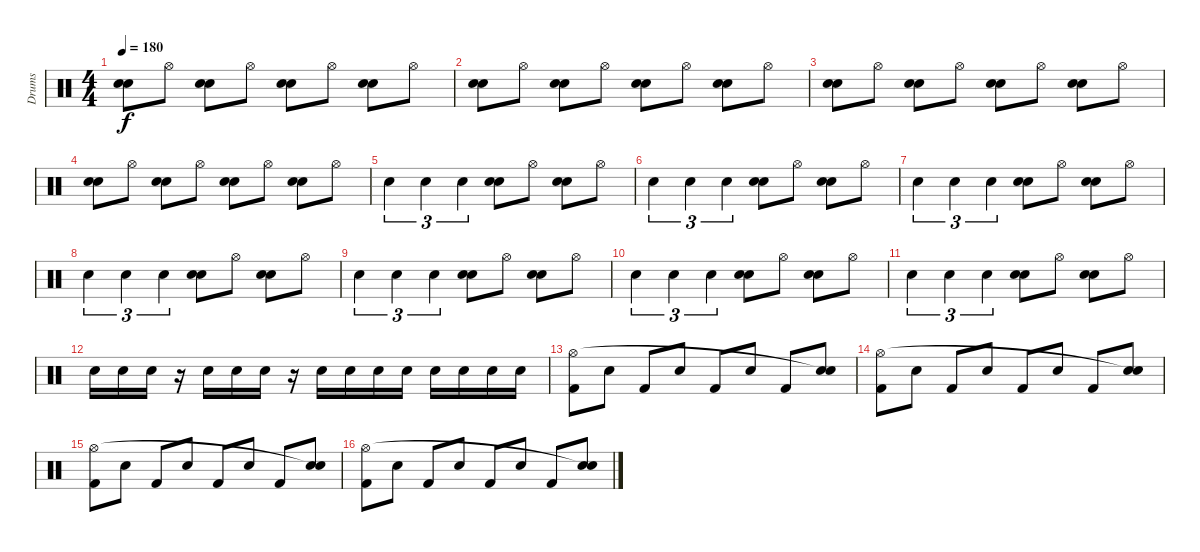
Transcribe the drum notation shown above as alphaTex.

\track ("Drums" "Drums") {instrument percussion}
\staff {score}
\articulation defaults
\ts (4 4)
\tempo 180
\clef neutral
\ks c
("Electric Snare (hit)" "Snare (hit) 2").8{dy f} "Hi-Hat (open)".8 ("Electric Snare (hit)" "Snare (hit) 2").8 "Hi-Hat (open)".8 ("Electric Snare (hit)" "Snare (hit) 2").8 "Hi-Hat (open)".8 ("Electric Snare (hit)" "Snare (hit) 2").8 "Hi-Hat (open)".8 |
("Electric Snare (hit)" "Snare (hit) 2").8 "Hi-Hat (open)".8 ("Electric Snare (hit)" "Snare (hit) 2").8 "Hi-Hat (open)".8 ("Electric Snare (hit)" "Snare (hit) 2").8 "Hi-Hat (open)".8 ("Electric Snare (hit)" "Snare (hit) 2").8 "Hi-Hat (open)".8 |
("Electric Snare (hit)" "Snare (hit) 2").8 "Hi-Hat (open)".8 ("Electric Snare (hit)" "Snare (hit) 2").8 "Hi-Hat (open)".8 ("Electric Snare (hit)" "Snare (hit) 2").8 "Hi-Hat (open)".8 ("Electric Snare (hit)" "Snare (hit) 2").8 "Hi-Hat (open)".8 |
("Electric Snare (hit)" "Snare (hit) 2").8 "Hi-Hat (open)".8 ("Electric Snare (hit)" "Snare (hit) 2").8 "Hi-Hat (open)".8 ("Electric Snare (hit)" "Snare (hit) 2").8 "Hi-Hat (open)".8 ("Electric Snare (hit)" "Snare (hit) 2").8 "Hi-Hat (open)".8 |
"Snare (hit) 2".4{tu (3 2)} "Snare (hit) 2".4{tu (3 2)} "Snare (hit) 2".4{tu (3 2)} ("Electric Snare (hit)" "Snare (hit) 2").8 "Hi-Hat (open)".8 ("Electric Snare (hit)" "Snare (hit) 2").8 "Hi-Hat (open)".8 |
"Snare (hit) 2".4{tu (3 2)} "Snare (hit) 2".4{tu (3 2)} "Snare (hit) 2".4{tu (3 2)} ("Electric Snare (hit)" "Snare (hit) 2").8 "Hi-Hat (open)".8 ("Electric Snare (hit)" "Snare (hit) 2").8 "Hi-Hat (open)".8 |
"Snare (hit) 2".4{tu (3 2)} "Snare (hit) 2".4{tu (3 2)} "Snare (hit) 2".4{tu (3 2)} ("Electric Snare (hit)" "Snare (hit) 2").8 "Hi-Hat (open)".8 ("Electric Snare (hit)" "Snare (hit) 2").8 "Hi-Hat (open)".8 |
"Snare (hit) 2".4{tu (3 2)} "Snare (hit) 2".4{tu (3 2)} "Snare (hit) 2".4{tu (3 2)} ("Electric Snare (hit)" "Snare (hit) 2").8 "Hi-Hat (open)".8 ("Electric Snare (hit)" "Snare (hit) 2").8 "Hi-Hat (open)".8 |
"Snare (hit) 2".4{tu (3 2)} "Snare (hit) 2".4{tu (3 2)} "Snare (hit) 2".4{tu (3 2)} ("Electric Snare (hit)" "Snare (hit) 2").8 "Hi-Hat (open)".8 ("Electric Snare (hit)" "Snare (hit) 2").8 "Hi-Hat (open)".8 |
"Snare (hit) 2".4{tu (3 2)} "Snare (hit) 2".4{tu (3 2)} "Snare (hit) 2".4{tu (3 2)} ("Electric Snare (hit)" "Snare (hit) 2").8 "Hi-Hat (open)".8 ("Electric Snare (hit)" "Snare (hit) 2").8 "Hi-Hat (open)".8 |
"Snare (hit) 2".4{tu (3 2)} "Snare (hit) 2".4{tu (3 2)} "Snare (hit) 2".4{tu (3 2)} ("Electric Snare (hit)" "Snare (hit) 2").8 "Hi-Hat (open)".8 ("Electric Snare (hit)" "Snare (hit) 2").8 "Hi-Hat (open)".8 |
"Electric Snare (hit)".16 "Electric Snare (hit)".16 "Electric Snare (hit)".16 r.16 "Electric Snare (hit)".16 "Electric Snare (hit)".16 "Electric Snare (hit)".16 r.16 "Electric Snare (hit)".16 "Electric Snare (hit)".16 "Electric Snare (hit)".16 "Electric Snare (hit)".16 "Electric Snare (hit)".16 "Electric Snare (hit)".16 "Electric Snare (hit)".16 "Electric Snare (hit)".16 |
("Kick (hit) 2" "Hi-Hat (open)").8 "Snare (hit) 2".8 "Kick (hit) 2".8 "Snare (hit) 2".8 "Kick (hit) 2".8 "Snare (hit) 2".8 "Kick (hit) 2".8 ("Snare (hit) 2" "Snare (hit)"{t}).8 |
("Kick (hit) 2" "Hi-Hat (open)").8 "Snare (hit) 2".8 "Kick (hit) 2".8 "Snare (hit) 2".8 "Kick (hit) 2".8 "Snare (hit) 2".8 "Kick (hit) 2".8 ("Snare (hit) 2" "Snare (hit)"{t}).8 |
("Kick (hit) 2" "Hi-Hat (open)").8 "Snare (hit) 2".8 "Kick (hit) 2".8 "Snare (hit) 2".8 "Kick (hit) 2".8 "Snare (hit) 2".8 "Kick (hit) 2".8 ("Snare (hit) 2" "Snare (hit)"{t}).8 |
("Kick (hit) 2" "Hi-Hat (open)").8 "Snare (hit) 2".8 "Kick (hit) 2".8 "Snare (hit) 2".8 "Kick (hit) 2".8 "Snare (hit) 2".8 "Kick (hit) 2".8 ("Snare (hit) 2" "Snare (hit)"{t}).8
